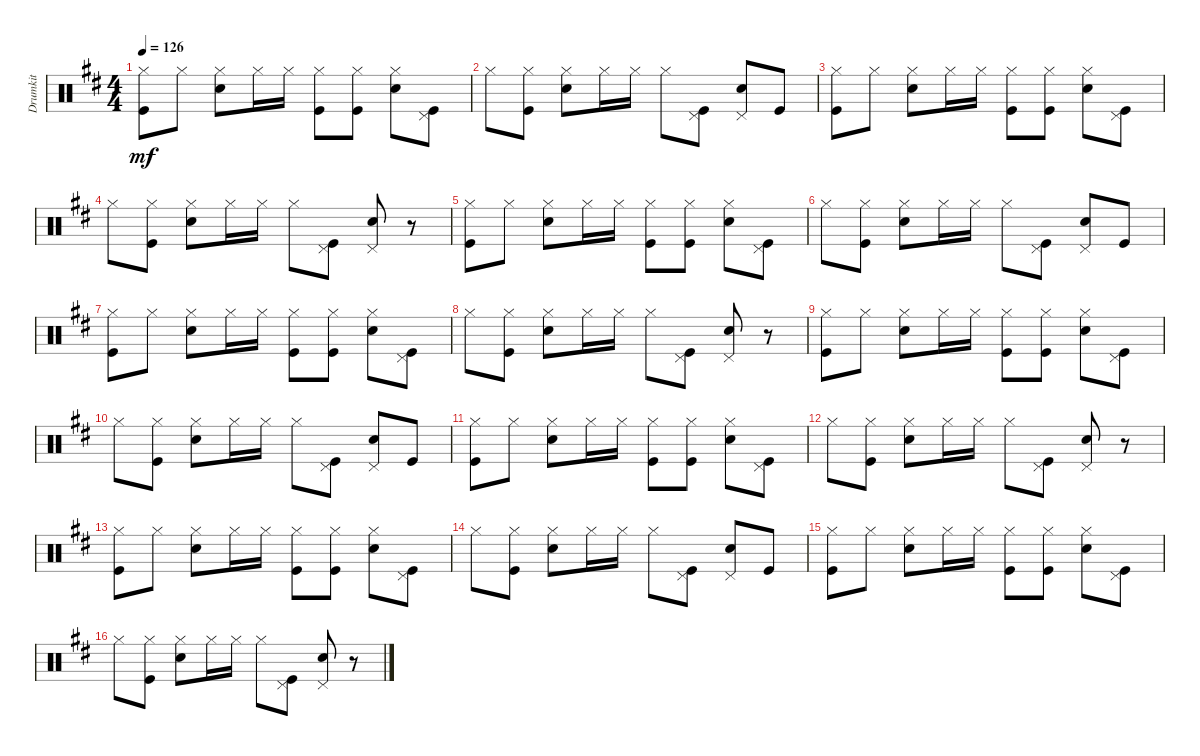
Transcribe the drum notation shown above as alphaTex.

\track ("Drumkit" "Drumkit") {instrument percussion}
\staff {score}
\articulation defaults
\ts (4 4)
\tempo 126
\clef neutral
\ks bminor
("Hi-Hat (closed)" "Kick (hit)").8{dy mf} "Hi-Hat (closed)".8 ("Hi-Hat (closed)" "Snare (hit) 2").8 "Hi-Hat (closed)".16 "Hi-Hat (closed)".16 ("Hi-Hat (closed)" "Kick (hit)").8 ("Hi-Hat (closed)" "Kick (hit)").8 ("Hi-Hat (closed)" "Snare (hit) 2").8 ("Kick (hit)" "Pedal Hi-Hat (hit)").8 |
"Hi-Hat (closed)".8 ("Hi-Hat (closed)" "Kick (hit)").8 ("Hi-Hat (closed)" "Snare (hit) 2").8 "Hi-Hat (closed)".16 "Hi-Hat (closed)".16 "Hi-Hat (closed)".8 ("Kick (hit)" "Pedal Hi-Hat (hit)").8 ("Snare (hit) 2" "Pedal Hi-Hat (hit)").8 "Kick (hit)".8 |
("Hi-Hat (closed)" "Kick (hit)").8 "Hi-Hat (closed)".8 ("Hi-Hat (closed)" "Snare (hit) 2").8 "Hi-Hat (closed)".16 "Hi-Hat (closed)".16 ("Hi-Hat (closed)" "Kick (hit)").8 ("Hi-Hat (closed)" "Kick (hit)").8 ("Hi-Hat (closed)" "Snare (hit) 2").8 ("Kick (hit)" "Pedal Hi-Hat (hit)").8 |
"Hi-Hat (closed)".8 ("Hi-Hat (closed)" "Kick (hit)").8 ("Hi-Hat (closed)" "Snare (hit) 2").8 "Hi-Hat (closed)".16 "Hi-Hat (closed)".16 "Hi-Hat (closed)".8 ("Kick (hit)" "Pedal Hi-Hat (hit)").8 ("Snare (hit) 2" "Pedal Hi-Hat (hit)").8 r.8 |
("Hi-Hat (closed)" "Kick (hit)").8 "Hi-Hat (closed)".8 ("Hi-Hat (closed)" "Snare (hit) 2").8 "Hi-Hat (closed)".16 "Hi-Hat (closed)".16 ("Hi-Hat (closed)" "Kick (hit)").8 ("Hi-Hat (closed)" "Kick (hit)").8 ("Hi-Hat (closed)" "Snare (hit) 2").8 ("Kick (hit)" "Pedal Hi-Hat (hit)").8 |
"Hi-Hat (closed)".8 ("Hi-Hat (closed)" "Kick (hit)").8 ("Hi-Hat (closed)" "Snare (hit) 2").8 "Hi-Hat (closed)".16 "Hi-Hat (closed)".16 "Hi-Hat (closed)".8 ("Kick (hit)" "Pedal Hi-Hat (hit)").8 ("Snare (hit) 2" "Pedal Hi-Hat (hit)").8 "Kick (hit)".8 |
("Hi-Hat (closed)" "Kick (hit)").8 "Hi-Hat (closed)".8 ("Hi-Hat (closed)" "Snare (hit) 2").8 "Hi-Hat (closed)".16 "Hi-Hat (closed)".16 ("Hi-Hat (closed)" "Kick (hit)").8 ("Hi-Hat (closed)" "Kick (hit)").8 ("Hi-Hat (closed)" "Snare (hit) 2").8 ("Kick (hit)" "Pedal Hi-Hat (hit)").8 |
"Hi-Hat (closed)".8 ("Hi-Hat (closed)" "Kick (hit)").8 ("Hi-Hat (closed)" "Snare (hit) 2").8 "Hi-Hat (closed)".16 "Hi-Hat (closed)".16 "Hi-Hat (closed)".8 ("Kick (hit)" "Pedal Hi-Hat (hit)").8 ("Snare (hit) 2" "Pedal Hi-Hat (hit)").8 r.8 |
("Hi-Hat (closed)" "Kick (hit)").8 "Hi-Hat (closed)".8 ("Hi-Hat (closed)" "Snare (hit) 2").8 "Hi-Hat (closed)".16 "Hi-Hat (closed)".16 ("Hi-Hat (closed)" "Kick (hit)").8 ("Hi-Hat (closed)" "Kick (hit)").8 ("Hi-Hat (closed)" "Snare (hit) 2").8 ("Kick (hit)" "Pedal Hi-Hat (hit)").8 |
"Hi-Hat (closed)".8 ("Hi-Hat (closed)" "Kick (hit)").8 ("Hi-Hat (closed)" "Snare (hit) 2").8 "Hi-Hat (closed)".16 "Hi-Hat (closed)".16 "Hi-Hat (closed)".8 ("Kick (hit)" "Pedal Hi-Hat (hit)").8 ("Snare (hit) 2" "Pedal Hi-Hat (hit)").8 "Kick (hit)".8 |
("Hi-Hat (closed)" "Kick (hit)").8 "Hi-Hat (closed)".8 ("Hi-Hat (closed)" "Snare (hit) 2").8 "Hi-Hat (closed)".16 "Hi-Hat (closed)".16 ("Hi-Hat (closed)" "Kick (hit)").8 ("Hi-Hat (closed)" "Kick (hit)").8 ("Hi-Hat (closed)" "Snare (hit) 2").8 ("Kick (hit)" "Pedal Hi-Hat (hit)").8 |
"Hi-Hat (closed)".8 ("Hi-Hat (closed)" "Kick (hit)").8 ("Hi-Hat (closed)" "Snare (hit) 2").8 "Hi-Hat (closed)".16 "Hi-Hat (closed)".16 "Hi-Hat (closed)".8 ("Kick (hit)" "Pedal Hi-Hat (hit)").8 ("Snare (hit) 2" "Pedal Hi-Hat (hit)").8 r.8 |
("Hi-Hat (closed)" "Kick (hit)").8 "Hi-Hat (closed)".8 ("Hi-Hat (closed)" "Snare (hit) 2").8 "Hi-Hat (closed)".16 "Hi-Hat (closed)".16 ("Hi-Hat (closed)" "Kick (hit)").8 ("Hi-Hat (closed)" "Kick (hit)").8 ("Hi-Hat (closed)" "Snare (hit) 2").8 ("Kick (hit)" "Pedal Hi-Hat (hit)").8 |
"Hi-Hat (closed)".8 ("Hi-Hat (closed)" "Kick (hit)").8 ("Hi-Hat (closed)" "Snare (hit) 2").8 "Hi-Hat (closed)".16 "Hi-Hat (closed)".16 "Hi-Hat (closed)".8 ("Kick (hit)" "Pedal Hi-Hat (hit)").8 ("Snare (hit) 2" "Pedal Hi-Hat (hit)").8 "Kick (hit)".8 |
("Hi-Hat (closed)" "Kick (hit)").8 "Hi-Hat (closed)".8 ("Hi-Hat (closed)" "Snare (hit) 2").8 "Hi-Hat (closed)".16 "Hi-Hat (closed)".16 ("Hi-Hat (closed)" "Kick (hit)").8 ("Hi-Hat (closed)" "Kick (hit)").8 ("Hi-Hat (closed)" "Snare (hit) 2").8 ("Kick (hit)" "Pedal Hi-Hat (hit)").8 |
"Hi-Hat (closed)".8 ("Hi-Hat (closed)" "Kick (hit)").8 ("Hi-Hat (closed)" "Snare (hit) 2").8 "Hi-Hat (closed)".16 "Hi-Hat (closed)".16 "Hi-Hat (closed)".8 ("Kick (hit)" "Pedal Hi-Hat (hit)").8 ("Snare (hit) 2" "Pedal Hi-Hat (hit)").8 r.8
